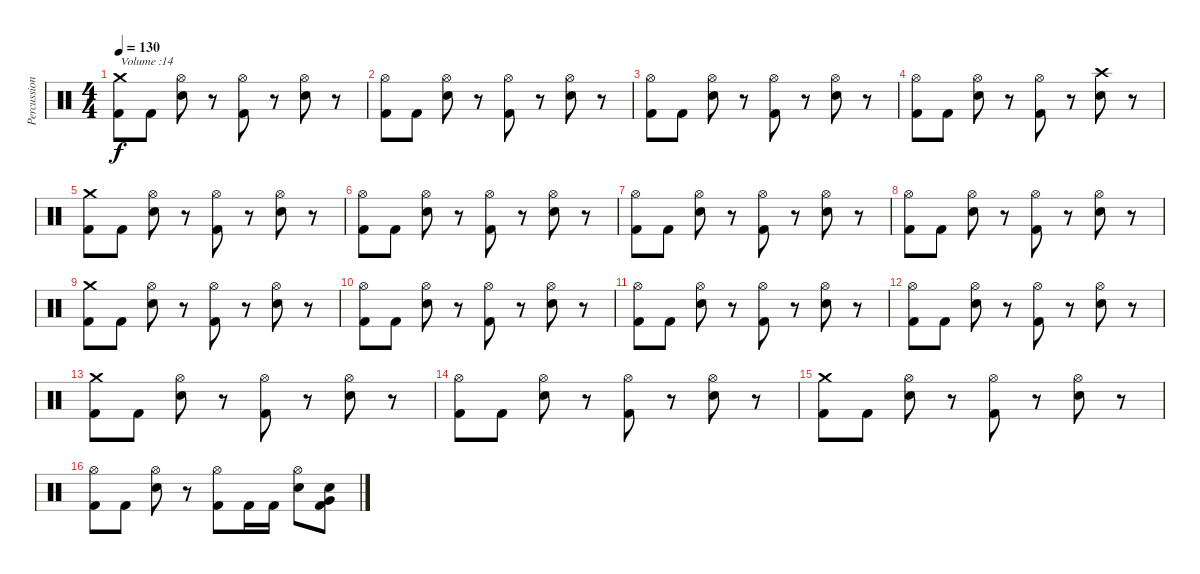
\track ("Percussions" "Percussion") {instrument percussion}
\staff {score}
\articulation defaults
\ts (4 4)
\tempo 130
\clef neutral
\ks c
("Crash medium (hit)" "Kick (hit) 2").8{txt "Volume :14" dy f volume 14} "Kick (hit) 2".8 ("Hi-Hat (open)" "Electric Snare (hit)").8 r.8 ("Hi-Hat (open)" "Kick (hit) 2").8 r.8 ("Hi-Hat (open)" "Electric Snare (hit)").8 r.8 |
("Hi-Hat (open)" "Kick (hit) 2").8 "Kick (hit) 2".8 ("Hi-Hat (open)" "Electric Snare (hit)").8 r.8 ("Hi-Hat (open)" "Kick (hit) 2").8 r.8 ("Hi-Hat (open)" "Electric Snare (hit)").8 r.8 |
("Hi-Hat (open)" "Kick (hit) 2").8{volume 14} "Kick (hit) 2".8 ("Hi-Hat (open)" "Electric Snare (hit)").8 r.8 ("Hi-Hat (open)" "Kick (hit) 2").8 r.8 ("Hi-Hat (open)" "Electric Snare (hit)").8 r.8 |
("Hi-Hat (open)" "Kick (hit) 2").8 "Kick (hit) 2".8 ("Hi-Hat (open)" "Electric Snare (hit)").8 r.8 ("Hi-Hat (open)" "Kick (hit) 2").8 r.8 ("Crash high (hit)" "Electric Snare (hit)").8 r.8 |
("Crash medium (hit)" "Kick (hit) 2").8{volume 14} "Kick (hit) 2".8 ("Hi-Hat (open)" "Electric Snare (hit)").8 r.8 ("Hi-Hat (open)" "Kick (hit) 2").8 r.8 ("Hi-Hat (open)" "Electric Snare (hit)").8 r.8 |
("Hi-Hat (open)" "Kick (hit) 2").8 "Kick (hit) 2".8 ("Hi-Hat (open)" "Electric Snare (hit)").8 r.8 ("Hi-Hat (open)" "Kick (hit) 2").8 r.8 ("Hi-Hat (open)" "Electric Snare (hit)").8 r.8 |
("Hi-Hat (open)" "Kick (hit) 2").8 "Kick (hit) 2".8 ("Hi-Hat (open)" "Electric Snare (hit)").8 r.8 ("Hi-Hat (open)" "Kick (hit) 2").8 r.8 ("Hi-Hat (open)" "Electric Snare (hit)").8 r.8 |
("Hi-Hat (open)" "Kick (hit) 2").8 "Kick (hit) 2".8 ("Hi-Hat (open)" "Electric Snare (hit)").8 r.8 ("Hi-Hat (open)" "Kick (hit) 2").8 r.8 ("Hi-Hat (open)" "Electric Snare (hit)").8 r.8 |
("Crash medium (hit)" "Kick (hit) 2").8{volume 14} "Kick (hit) 2".8 ("Hi-Hat (open)" "Electric Snare (hit)").8 r.8 ("Hi-Hat (open)" "Kick (hit) 2").8 r.8 ("Hi-Hat (open)" "Electric Snare (hit)").8 r.8 |
("Hi-Hat (open)" "Kick (hit) 2").8 "Kick (hit) 2".8 ("Hi-Hat (open)" "Electric Snare (hit)").8 r.8 ("Hi-Hat (open)" "Kick (hit) 2").8 r.8 ("Hi-Hat (open)" "Electric Snare (hit)").8 r.8 |
("Hi-Hat (open)" "Kick (hit) 2").8 "Kick (hit) 2".8 ("Hi-Hat (open)" "Electric Snare (hit)").8 r.8 ("Hi-Hat (open)" "Kick (hit) 2").8 r.8 ("Hi-Hat (open)" "Electric Snare (hit)").8 r.8 |
("Hi-Hat (open)" "Kick (hit) 2").8 "Kick (hit) 2".8 ("Hi-Hat (open)" "Electric Snare (hit)").8 r.8 ("Hi-Hat (open)" "Kick (hit) 2").8 r.8 ("Hi-Hat (open)" "Electric Snare (hit)").8 r.8 |
("Crash medium (hit)" "Kick (hit) 2").8 "Kick (hit) 2".8 ("Hi-Hat (open)" "Electric Snare (hit)").8 r.8 ("Hi-Hat (open)" "Kick (hit) 2").8 r.8 ("Hi-Hat (open)" "Electric Snare (hit)").8 r.8 |
("Hi-Hat (open)" "Kick (hit) 2").8 "Kick (hit) 2".8 ("Hi-Hat (open)" "Electric Snare (hit)").8 r.8 ("Hi-Hat (open)" "Kick (hit) 2").8 r.8 ("Hi-Hat (open)" "Electric Snare (hit)").8 r.8 |
("Crash medium (hit)" "Kick (hit) 2").8 "Kick (hit) 2".8 ("Hi-Hat (open)" "Electric Snare (hit)").8 r.8 ("Hi-Hat (open)" "Kick (hit) 2").8 r.8 ("Hi-Hat (open)" "Electric Snare (hit)").8 r.8 |
("Hi-Hat (open)" "Kick (hit) 2").8 "Kick (hit) 2".8 ("Hi-Hat (open)" "Electric Snare (hit)").8 r.8 ("Hi-Hat (open)" "Kick (hit) 2").8 "Kick (hit) 2".16 "Kick (hit) 2".16 ("Hi-Hat (open)" "Electric Snare (hit)").8 ("Electric Snare (hit)" "Very Low Tom (hit)" "Kick (hit) 2").8
